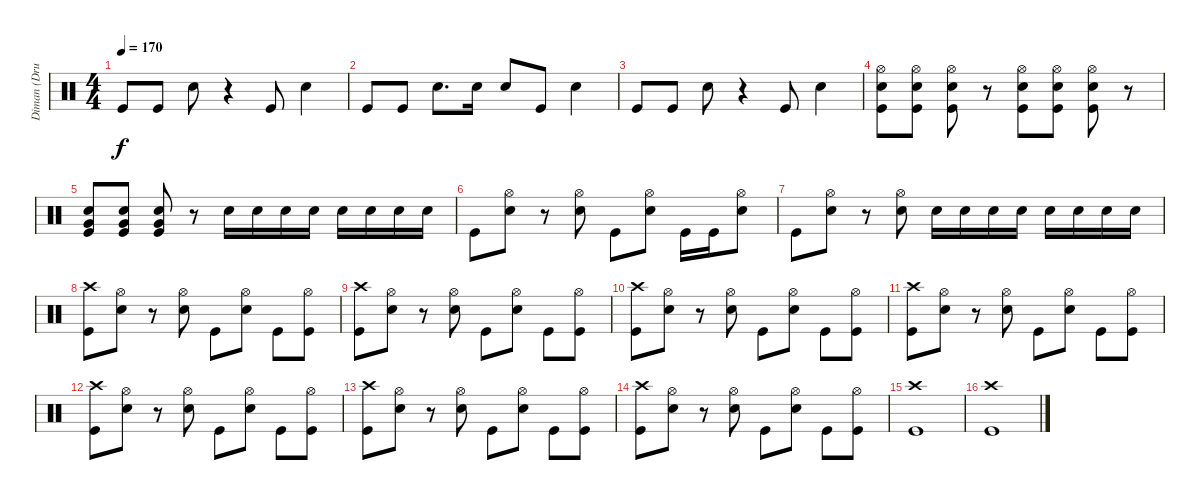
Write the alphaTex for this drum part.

\track ("Diman (Drums)" "Diman (Dru") {instrument percussion}
\staff {score}
\articulation defaults
\ts (4 4)
\tempo 170
\clef neutral
\ks c "Kick (hit)".8{dy f} "Kick (hit)".8 "Snare (hit) 2".8
r.4 "Kick (hit)".8 "Snare (hit) 2".4 |
"Kick (hit)".8 "Kick (hit)".8 "Snare (hit) 2".8{d} "Snare (hit) 2".16 "Snare (hit) 2".8 "Kick (hit)".8 "Snare (hit) 2".4 |
"Kick (hit)".8 "Kick (hit)".8 "Snare (hit) 2".8 r.4 "Kick (hit)".8 "Snare (hit) 2".4 |
("Kick (hit)" "Snare (hit) 2" "Hi-Hat (open)").8 ("Kick (hit)" "Snare (hit) 2" "Hi-Hat (open)").8 ("Kick (hit)" "Snare (hit) 2" "Hi-Hat (open)").8 r.8 ("Kick (hit)" "Snare (hit) 2" "Hi-Hat (open)").8 ("Kick (hit)" "Snare (hit) 2" "Hi-Hat (open)").8 ("Kick (hit)" "Snare (hit) 2" "Hi-Hat (open)").8 r.8 |
("Kick (hit)" "Snare (hit) 2" "Very Low Tom (hit)").8 ("Snare (hit) 2" "Kick (hit)" "Very Low Tom (hit)").8 ("Snare (hit) 2" "Kick (hit)" "Very Low Tom (hit)").8 r.8 "Snare (hit) 2".16 "Snare (hit) 2".16 "Snare (hit) 2".16 "Snare (hit) 2".16 "Snare (hit) 2".16 "Snare (hit) 2".16 "Snare (hit) 2".16 "Snare (hit) 2".16 |
"Kick (hit)".8 ("Snare (hit) 2" "Hi-Hat (open)").8 r.8 ("Snare (hit) 2" "Hi-Hat (open)").8 "Kick (hit)".8 ("Snare (hit) 2" "Hi-Hat (open)").8 "Kick (hit)".16 "Kick (hit)".16 ("Snare (hit) 2" "Hi-Hat (open)").8 |
"Kick (hit)".8 ("Snare (hit) 2" "Hi-Hat (open)").8 r.8 ("Snare (hit) 2" "Hi-Hat (open)").8 "Snare (hit) 2".16 "Snare (hit) 2".16 "Snare (hit) 2".16 "Snare (hit) 2".16 "Snare (hit) 2".16 "Snare (hit) 2".16 "Snare (hit) 2".16 "Snare (hit) 2".16 |
("Kick (hit)" "Crash high (hit)").8 ("Snare (hit) 2" "Hi-Hat (open)").8 r.8 ("Snare (hit) 2" "Hi-Hat (open)").8 "Kick (hit)".8 ("Snare (hit) 2" "Hi-Hat (open)").8 "Kick (hit)".8 ("Hi-Hat (open)" "Kick (hit)").8 |
("Kick (hit)" "Crash high (hit)").8 ("Snare (hit) 2" "Hi-Hat (open)").8 r.8 ("Snare (hit) 2" "Hi-Hat (open)").8 "Kick (hit)".8 ("Snare (hit) 2" "Hi-Hat (open)").8 "Kick (hit)".8 ("Hi-Hat (open)" "Kick (hit)").8 |
("Kick (hit)" "Crash high (hit)").8 ("Snare (hit) 2" "Hi-Hat (open)").8 r.8 ("Snare (hit) 2" "Hi-Hat (open)").8 "Kick (hit)".8 ("Snare (hit) 2" "Hi-Hat (open)").8 "Kick (hit)".8 ("Hi-Hat (open)" "Kick (hit)").8 |
("Kick (hit)" "Crash high (hit)").8 ("Snare (hit) 2" "Hi-Hat (open)").8 r.8 ("Snare (hit) 2" "Hi-Hat (open)").8 "Kick (hit)".8 ("Snare (hit) 2" "Hi-Hat (open)").8 "Kick (hit)".8 ("Hi-Hat (open)" "Kick (hit)").8 |
("Kick (hit)" "Crash high (hit)").8 ("Snare (hit) 2" "Hi-Hat (open)").8 r.8 ("Snare (hit) 2" "Hi-Hat (open)").8 "Kick (hit)".8 ("Snare (hit) 2" "Hi-Hat (open)").8 "Kick (hit)".8 ("Hi-Hat (open)" "Kick (hit)").8 |
("Kick (hit)" "Crash high (hit)").8 ("Snare (hit) 2" "Hi-Hat (open)").8 r.8 ("Snare (hit) 2" "Hi-Hat (open)").8 "Kick (hit)".8 ("Snare (hit) 2" "Hi-Hat (open)").8 "Kick (hit)".8 ("Hi-Hat (open)" "Kick (hit)").8 |
("Kick (hit)" "Crash high (hit)").8 ("Snare (hit) 2" "Hi-Hat (open)").8 r.8 ("Snare (hit) 2" "Hi-Hat (open)").8 "Kick (hit)".8 ("Snare (hit) 2" "Hi-Hat (open)").8 "Kick (hit)".8 ("Hi-Hat (open)" "Kick (hit)").8 |
("Kick (hit)" "Crash high (hit)").1 |
("Kick (hit)" "Crash high (hit)").1
